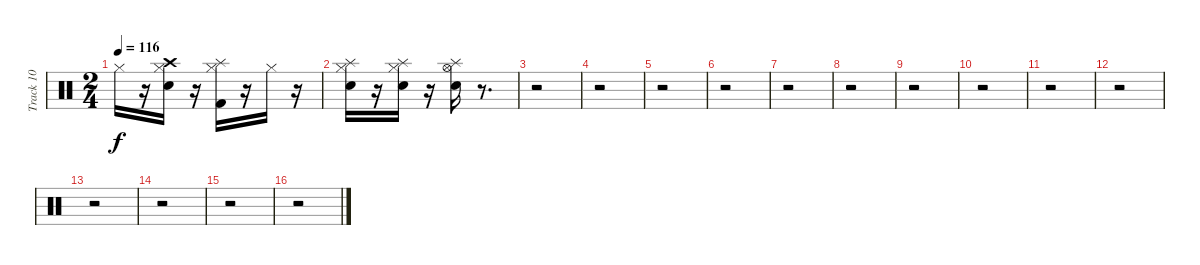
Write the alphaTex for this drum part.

\track ("Track 10" "Track 10") {instrument percussion}
\staff {score}
\articulation defaults
\ts (2 4)
\tempo 116
\clef neutral
\ks c "Hi-Hat (closed)".16{dy f}
r.16 ("Hi-Hat (closed)" "Crash high (hit)" "Electric Snare (hit)").16 r.16 ("Splash (hit)" "Kick (hit) 2" "Hi-Hat (closed)").16 r.16 "Hi-Hat (closed)".16 r.16 |
("Hi-Hat (closed)" "Electric Snare (hit)" "Splash (hit)").16 r.16 ("Hi-Hat (closed)" "Electric Snare (hit)" "Splash (hit)").16 r.16 ("Splash (hit)" "Electric Snare (hit)" "Hi-Hat (open)").16 r.8{d} |
r.2 |
r.2 |
r.2 |
r.2 |
r.2 |
r.2 |
r.2 |
r.2 |
r.2 |
r.2 |
r.2 |
r.2 |
r.2 |
r.2
